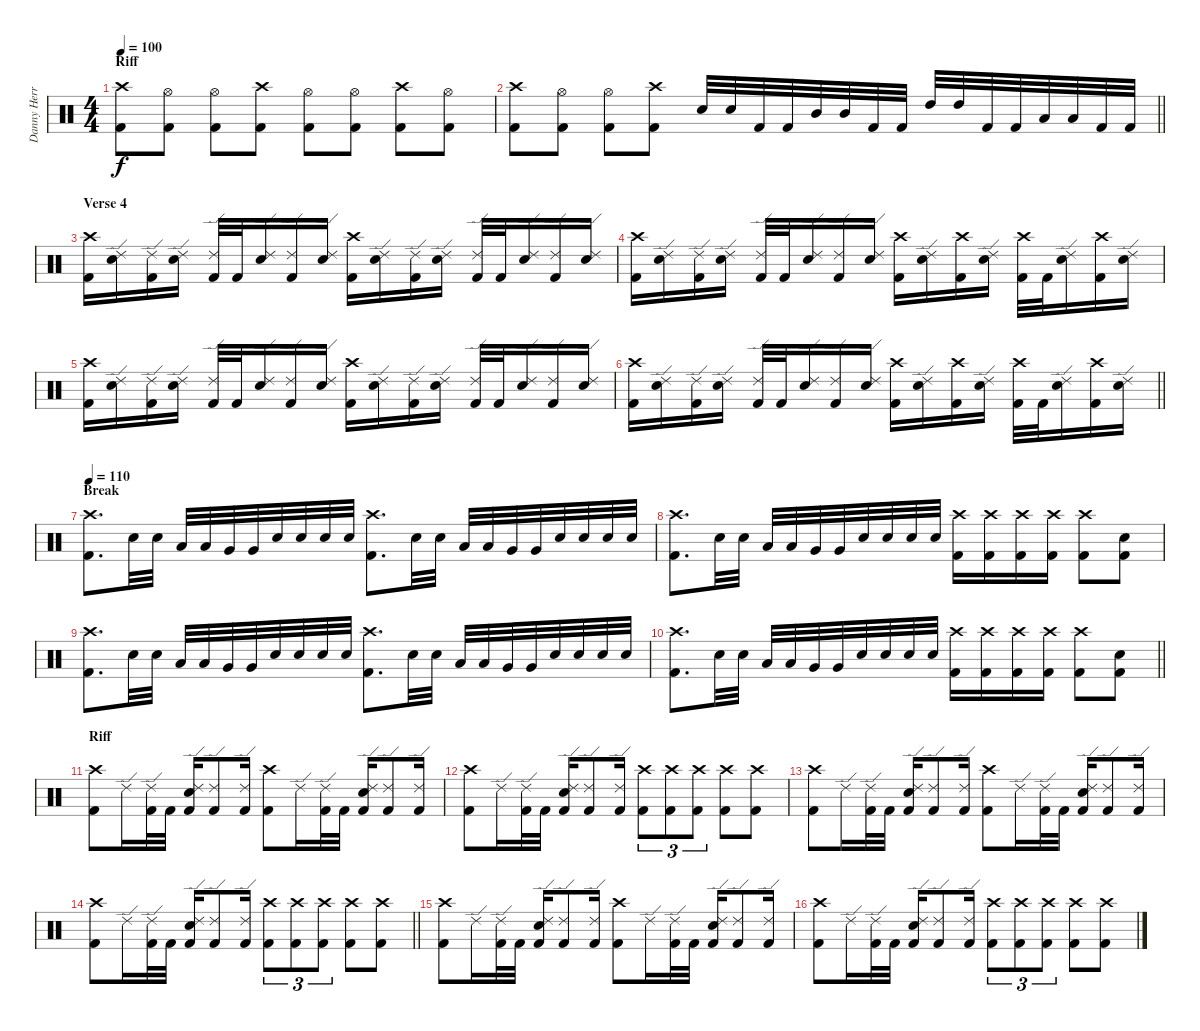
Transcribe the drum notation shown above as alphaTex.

\track ("Danny Herrera" "Danny Herr") {instrument percussion}
\staff {score}
\articulation defaults
\ts (4 4)
\section ("" "Riff")
\tempo 100
\clef neutral
\ks c
("Kick (hit) 2" "Crash high (hit)").8{dy f} ("Kick (hit) 2" "Hi-Hat (open)").8 ("Kick (hit) 2" "Hi-Hat (open)").8 ("Kick (hit) 2" "Crash high (hit)").8 ("Kick (hit) 2" "Hi-Hat (open)").8 ("Kick (hit) 2" "Hi-Hat (open)").8 ("Kick (hit) 2" "Crash high (hit)").8 ("Kick (hit) 2" "Hi-Hat (open)").8 |
\barLineRight lightlight
("Kick (hit) 2" "Crash high (hit)").8 ("Kick (hit) 2" "Hi-Hat (open)").8 ("Kick (hit) 2" "Hi-Hat (open)").8 ("Kick (hit) 2" "Crash high (hit)").8 "Snare (hit) 2".32 "Snare (hit) 2".32 "Kick (hit) 2".32 "Kick (hit) 2".32 "Mid Tom (hit)".32 "Mid Tom (hit)".32 "Kick (hit) 2".32 "Kick (hit) 2".32 "High Tom (hit)".32 "High Tom (hit)".32 "Kick (hit) 2".32 "Kick (hit) 2".32 "Low Tom (hit)".32 "Low Tom (hit)".32 "Kick (hit) 2".32 "Kick (hit) 2".32 |
\section ("" "Verse 4")
("Kick (hit) 2" "Crash high (hit)").16 ("Snare (hit) 2" "Ride (edge) 2").16 ("Kick (hit) 2" "Ride (edge) 2").16 ("Snare (hit) 2" "Ride (edge) 2").16 ("Kick (hit) 2" "Ride (edge) 2").32 "Kick (hit) 2".32 ("Snare (hit) 2" "Ride (edge) 2").16 ("Kick (hit) 2" "Ride (edge) 2").16 ("Snare (hit) 2" "Ride (edge) 2").16 ("Kick (hit) 2" "Crash high (hit)").16 ("Snare (hit) 2" "Ride (edge) 2").16 ("Kick (hit) 2" "Ride (edge) 2").16 ("Snare (hit) 2" "Ride (edge) 2").16 ("Kick (hit) 2" "Ride (edge) 2").32 "Kick (hit) 2".32 ("Snare (hit) 2" "Ride (edge) 2").16 ("Kick (hit) 2" "Ride (edge) 2").16 ("Snare (hit) 2" "Ride (edge) 2").16 |
("Kick (hit) 2" "Crash high (hit)").16 ("Snare (hit) 2" "Ride (edge) 2").16 ("Kick (hit) 2" "Ride (edge) 2").16 ("Snare (hit) 2" "Ride (edge) 2").16 ("Kick (hit) 2" "Ride (edge) 2").32 "Kick (hit) 2".32 ("Snare (hit) 2" "Ride (edge) 2").16 ("Kick (hit) 2" "Ride (edge) 2").16 ("Snare (hit) 2" "Ride (edge) 2").16 ("Kick (hit) 2" "Crash high (hit)").16 ("Snare (hit) 2" "Ride (edge) 2").16 ("Kick (hit) 2" "Crash high (hit)").16 ("Snare (hit) 2" "Ride (edge) 2").16 ("Kick (hit) 2" "Crash high (hit)").32 "Kick (hit) 2".32 ("Snare (hit) 2" "Ride (edge) 2").16 ("Kick (hit) 2" "Crash high (hit)").16 ("Snare (hit) 2" "Ride (edge) 2").16 |
("Kick (hit) 2" "Crash high (hit)").16 ("Snare (hit) 2" "Ride (edge) 2").16 ("Kick (hit) 2" "Ride (edge) 2").16 ("Snare (hit) 2" "Ride (edge) 2").16 ("Kick (hit) 2" "Ride (edge) 2").32 "Kick (hit) 2".32 ("Snare (hit) 2" "Ride (edge) 2").16 ("Kick (hit) 2" "Ride (edge) 2").16 ("Snare (hit) 2" "Ride (edge) 2").16 ("Kick (hit) 2" "Crash high (hit)").16 ("Snare (hit) 2" "Ride (edge) 2").16 ("Kick (hit) 2" "Ride (edge) 2").16 ("Snare (hit) 2" "Ride (edge) 2").16 ("Kick (hit) 2" "Ride (edge) 2").32 "Kick (hit) 2".32 ("Snare (hit) 2" "Ride (edge) 2").16 ("Kick (hit) 2" "Ride (edge) 2").16 ("Snare (hit) 2" "Ride (edge) 2").16 |
\barLineRight lightlight
("Kick (hit) 2" "Crash high (hit)").16 ("Snare (hit) 2" "Ride (edge) 2").16 ("Kick (hit) 2" "Ride (edge) 2").16 ("Snare (hit) 2" "Ride (edge) 2").16 ("Kick (hit) 2" "Ride (edge) 2").32 "Kick (hit) 2".32 ("Snare (hit) 2" "Ride (edge) 2").16 ("Kick (hit) 2" "Ride (edge) 2").16 ("Snare (hit) 2" "Ride (edge) 2").16 ("Kick (hit) 2" "Crash high (hit)").16 ("Snare (hit) 2" "Ride (edge) 2").16 ("Kick (hit) 2" "Crash high (hit)").16 ("Snare (hit) 2" "Ride (edge) 2").16 ("Kick (hit) 2" "Crash high (hit)").32 "Kick (hit) 2".32 ("Snare (hit) 2" "Ride (edge) 2").16 ("Kick (hit) 2" "Crash high (hit)").16 ("Snare (hit) 2" "Ride (edge) 2").16 |
\section ("" "Break")
\tempo 110
("Kick (hit) 2" "Crash high (hit)").8{d} "Snare (hit) 2".32 "Snare (hit) 2".32 "Low Tom (hit)".32 "Low Tom (hit)".32 "Very Low Tom (hit)".32 "Very Low Tom (hit)".32 "Snare (hit) 2".32 "Snare (hit) 2".32 "Snare (hit) 2".32 "Snare (hit) 2".32 ("Kick (hit) 2" "Crash high (hit)").8{d} "Snare (hit) 2".32 "Snare (hit) 2".32 "Low Tom (hit)".32 "Low Tom (hit)".32 "Very Low Tom (hit)".32 "Very Low Tom (hit)".32 "Snare (hit) 2".32 "Snare (hit) 2".32 "Snare (hit) 2".32 "Snare (hit) 2".32 |
("Kick (hit) 2" "Crash high (hit)").8{d} "Snare (hit) 2".32 "Snare (hit) 2".32 "Low Tom (hit)".32 "Low Tom (hit)".32 "Very Low Tom (hit)".32 "Very Low Tom (hit)".32 "Snare (hit) 2".32 "Snare (hit) 2".32 "Snare (hit) 2".32 "Snare (hit) 2".32 ("Kick (hit) 2" "Crash high (hit)").16 ("Kick (hit) 2" "Crash high (hit)").16 ("Kick (hit) 2" "Crash high (hit)").16 ("Kick (hit) 2" "Crash high (hit)").16 ("Kick (hit) 2" "Crash high (hit)").8 ("Kick (hit) 2" "Snare (hit) 2").8 |
("Kick (hit) 2" "Crash high (hit)").8{d} "Snare (hit) 2".32 "Snare (hit) 2".32 "Low Tom (hit)".32 "Low Tom (hit)".32 "Very Low Tom (hit)".32 "Very Low Tom (hit)".32 "Snare (hit) 2".32 "Snare (hit) 2".32 "Snare (hit) 2".32 "Snare (hit) 2".32 ("Kick (hit) 2" "Crash high (hit)").8{d} "Snare (hit) 2".32 "Snare (hit) 2".32 "Low Tom (hit)".32 "Low Tom (hit)".32 "Very Low Tom (hit)".32 "Very Low Tom (hit)".32 "Snare (hit) 2".32 "Snare (hit) 2".32 "Snare (hit) 2".32 "Snare (hit) 2".32 |
\barLineRight lightlight
("Kick (hit) 2" "Crash high (hit)").8{d} "Snare (hit) 2".32 "Snare (hit) 2".32 "Low Tom (hit)".32 "Low Tom (hit)".32 "Very Low Tom (hit)".32 "Very Low Tom (hit)".32 "Snare (hit) 2".32 "Snare (hit) 2".32 "Snare (hit) 2".32 "Snare (hit) 2".32 ("Kick (hit) 2" "Crash high (hit)").16 ("Kick (hit) 2" "Crash high (hit)").16 ("Kick (hit) 2" "Crash high (hit)").16 ("Kick (hit) 2" "Crash high (hit)").16 ("Kick (hit) 2" "Crash high (hit)").8 ("Kick (hit) 2" "Snare (hit) 2").8 |
\section ("" "Riff")
("Kick (hit) 2" "Crash high (hit)").8 "Ride (edge) 2".16 ("Kick (hit) 2" "Ride (edge) 2").32 "Kick (hit) 2".32 ("Kick (hit) 2" "Snare (hit) 2" "Ride (edge) 2").16 ("Kick (hit) 2" "Ride (edge) 2").8 ("Kick (hit) 2" "Ride (edge) 2").16 ("Kick (hit) 2" "Crash high (hit)").8 "Ride (edge) 2".16 ("Kick (hit) 2" "Ride (edge) 2").32 "Kick (hit) 2".32 ("Kick (hit) 2" "Snare (hit) 2" "Ride (edge) 2").16 ("Kick (hit) 2" "Ride (edge) 2").8 ("Kick (hit) 2" "Ride (edge) 2").16 |
("Kick (hit) 2" "Crash high (hit)").8 "Ride (edge) 2".16 ("Kick (hit) 2" "Ride (edge) 2").32 "Kick (hit) 2".32 ("Kick (hit) 2" "Snare (hit) 2" "Ride (edge) 2").16 ("Kick (hit) 2" "Ride (edge) 2").8 ("Kick (hit) 2" "Ride (edge) 2").16 ("Kick (hit) 2" "Crash high (hit)").8{tu (3 2)} ("Kick (hit) 2" "Crash high (hit)").8{tu (3 2)} ("Kick (hit) 2" "Crash high (hit)").8{tu (3 2)} ("Kick (hit) 2" "Crash high (hit)").8 ("Kick (hit) 2" "Crash high (hit)").8 |
("Kick (hit) 2" "Crash high (hit)").8 "Ride (edge) 2".16 ("Kick (hit) 2" "Ride (edge) 2").32 "Kick (hit) 2".32 ("Kick (hit) 2" "Snare (hit) 2" "Ride (edge) 2").16 ("Kick (hit) 2" "Ride (edge) 2").8 ("Kick (hit) 2" "Ride (edge) 2").16 ("Kick (hit) 2" "Crash high (hit)").8 "Ride (edge) 2".16 ("Kick (hit) 2" "Ride (edge) 2").32 "Kick (hit) 2".32 ("Kick (hit) 2" "Snare (hit) 2" "Ride (edge) 2").16 ("Kick (hit) 2" "Ride (edge) 2").8 ("Kick (hit) 2" "Ride (edge) 2").16 |
\barLineRight lightlight
("Kick (hit) 2" "Crash high (hit)").8 "Ride (edge) 2".16 ("Kick (hit) 2" "Ride (edge) 2").32 "Kick (hit) 2".32 ("Kick (hit) 2" "Snare (hit) 2" "Ride (edge) 2").16 ("Kick (hit) 2" "Ride (edge) 2").8 ("Kick (hit) 2" "Ride (edge) 2").16 ("Kick (hit) 2" "Crash high (hit)").8{tu (3 2)} ("Kick (hit) 2" "Crash high (hit)").8{tu (3 2)} ("Kick (hit) 2" "Crash high (hit)").8{tu (3 2)} ("Kick (hit) 2" "Crash high (hit)").8 ("Kick (hit) 2" "Crash high (hit)").8 |
("Kick (hit) 2" "Crash high (hit)").8 "Ride (edge) 2".16 ("Kick (hit) 2" "Ride (edge) 2").32 "Kick (hit) 2".32 ("Kick (hit) 2" "Snare (hit) 2" "Ride (edge) 2").16 ("Kick (hit) 2" "Ride (edge) 2").8 ("Kick (hit) 2" "Ride (edge) 2").16 ("Kick (hit) 2" "Crash high (hit)").8 "Ride (edge) 2".16 ("Kick (hit) 2" "Ride (edge) 2").32 "Kick (hit) 2".32 ("Kick (hit) 2" "Snare (hit) 2" "Ride (edge) 2").16 ("Kick (hit) 2" "Ride (edge) 2").8 ("Kick (hit) 2" "Ride (edge) 2").16 |
("Kick (hit) 2" "Crash high (hit)").8 "Ride (edge) 2".16 ("Kick (hit) 2" "Ride (edge) 2").32 "Kick (hit) 2".32 ("Kick (hit) 2" "Snare (hit) 2" "Ride (edge) 2").16 ("Kick (hit) 2" "Ride (edge) 2").8 ("Kick (hit) 2" "Ride (edge) 2").16 ("Kick (hit) 2" "Crash high (hit)").8{tu (3 2)} ("Kick (hit) 2" "Crash high (hit)").8{tu (3 2)} ("Kick (hit) 2" "Crash high (hit)").8{tu (3 2)} ("Kick (hit) 2" "Crash high (hit)").8 ("Kick (hit) 2" "Crash high (hit)").8
